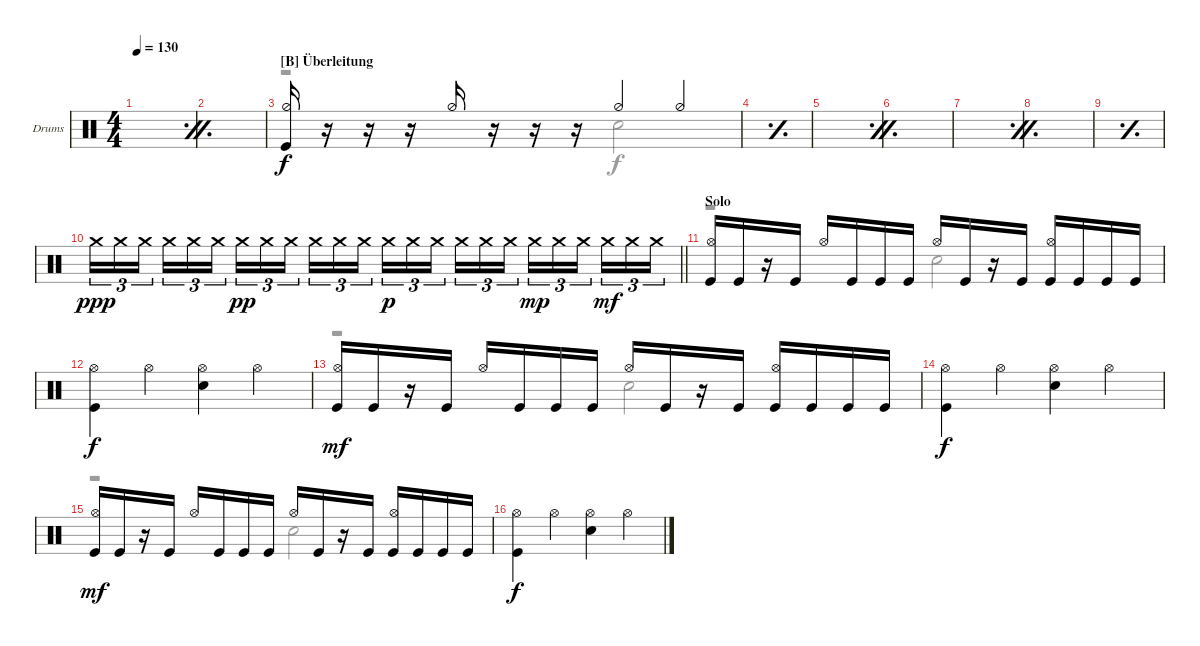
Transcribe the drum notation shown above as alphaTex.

\bracketExtendMode groupsimilarinstruments
\firstSystemTrackNameOrientation horizontal
\otherSystemsTrackNameOrientation horizontal
\track ("Drumkit" "Drums") {instrument percussion}
\staff {score}
\articulation defaults
\voice
\ts (4 4)
\tempo 130
\clef neutral
\simile firstofdouble
\ks c
|
\simile secondofdouble
|
\section ("B" "Überleitung")
("Kick (hit)" "Hi-Hat (half)").16 r.16 r.16 r.16 "Hi-Hat (half)".16 r.16 r.16 r.16 "Hi-Hat (half)".4 "Hi-Hat (half)".4 |
\simile simple
|
\simile firstofdouble
|
\simile secondofdouble
|
\simile firstofdouble
|
\simile secondofdouble
|
\simile simple
|
\simile none
\barLineRight lightlight "Crash medium (hit)".16{tu (3 2) dy ppp} "Crash medium (hit)".16{tu (3 2)} "Crash medium (hit)".16{tu (3 2)} "Crash medium (hit)".16{tu (3 2)} "Crash medium (hit)".16{tu (3 2)} "Crash medium (hit)".16{tu (3 2)} "Crash medium (hit)".16{tu (3 2) dy pp} "Crash medium (hit)".16{tu (3 2)} "Crash medium (hit)".16{tu (3 2)} "Crash medium (hit)".16{tu (3 2)} "Crash medium (hit)".16{tu (3 2)} "Crash medium (hit)".16{tu (3 2)} "Crash medium (hit)".16{tu (3 2) dy p} "Crash medium (hit)".16{tu (3 2)} "Crash medium (hit)".16{tu (3 2)} "Crash medium (hit)".16{tu (3 2)} "Crash medium (hit)".16{tu (3 2)} "Crash medium (hit)".16{tu (3 2)} "Crash medium (hit)".16{tu (3 2) dy mp} "Crash medium (hit)".16{tu (3 2)} "Crash medium (hit)".16{tu (3 2)} "Crash medium (hit)".16{tu (3 2) dy mf} "Crash medium (hit)".16{tu (3 2)} "Crash medium (hit)".16{tu (3 2)}
|
\section ("" "Solo")
("Kick (hit)" "Hi-Hat (open)").16 "Kick (hit)".16 r.16 "Kick (hit)".16 "Hi-Hat (open)".16 "Kick (hit)".16 "Kick (hit)".16 "Kick (hit)".16 "Hi-Hat (open)".16 "Kick (hit)".16 r.16 "Kick (hit)".16 ("Hi-Hat (open)" "Kick (hit)").16 "Kick (hit)".16 "Kick (hit)".16 "Kick (hit)".16 |
("Hi-Hat (open)" "Kick (hit)").4{dy f} "Hi-Hat (open)".4 ("Hi-Hat (open)" "Snare (hit) 2").4 "Hi-Hat (open)".4 |
("Kick (hit)" "Hi-Hat (open)").16{dy mf} "Kick (hit)".16 r.16 "Kick (hit)".16 "Hi-Hat (open)".16 "Kick (hit)".16 "Kick (hit)".16 "Kick (hit)".16 "Hi-Hat (open)".16 "Kick (hit)".16 r.16 "Kick (hit)".16 ("Hi-Hat (open)" "Kick (hit)").16 "Kick (hit)".16 "Kick (hit)".16 "Kick (hit)".16 |
("Hi-Hat (open)" "Kick (hit)").4{dy f} "Hi-Hat (open)".4 ("Hi-Hat (open)" "Snare (hit) 2").4 "Hi-Hat (open)".4 |
("Kick (hit)" "Hi-Hat (open)").16{dy mf} "Kick (hit)".16 r.16 "Kick (hit)".16 "Hi-Hat (open)".16 "Kick (hit)".16 "Kick (hit)".16 "Kick (hit)".16 "Hi-Hat (open)".16 "Kick (hit)".16 r.16 "Kick (hit)".16 ("Hi-Hat (open)" "Kick (hit)").16 "Kick (hit)".16 "Kick (hit)".16 "Kick (hit)".16 |
("Hi-Hat (open)" "Kick (hit)").4{dy f} "Hi-Hat (open)".4 ("Hi-Hat (open)" "Snare (hit) 2").4 "Hi-Hat (open)".4
\voice
\clef neutral
\ottava regular
\simile firstofdouble
\ks c
|
\simile secondofdouble
|
\simile none
r.2 "Snare (hit) 2".2 |
\simile simple
|
\simile firstofdouble
|
\simile secondofdouble
|
\simile firstofdouble
|
\simile secondofdouble
|
\simile simple
|
\simile none
\barLineRight lightlight
|
r.2 "Snare (hit) 2".2 |
|
r.2 "Snare (hit) 2".2 |
|
r.2 "Snare (hit) 2".2 |
